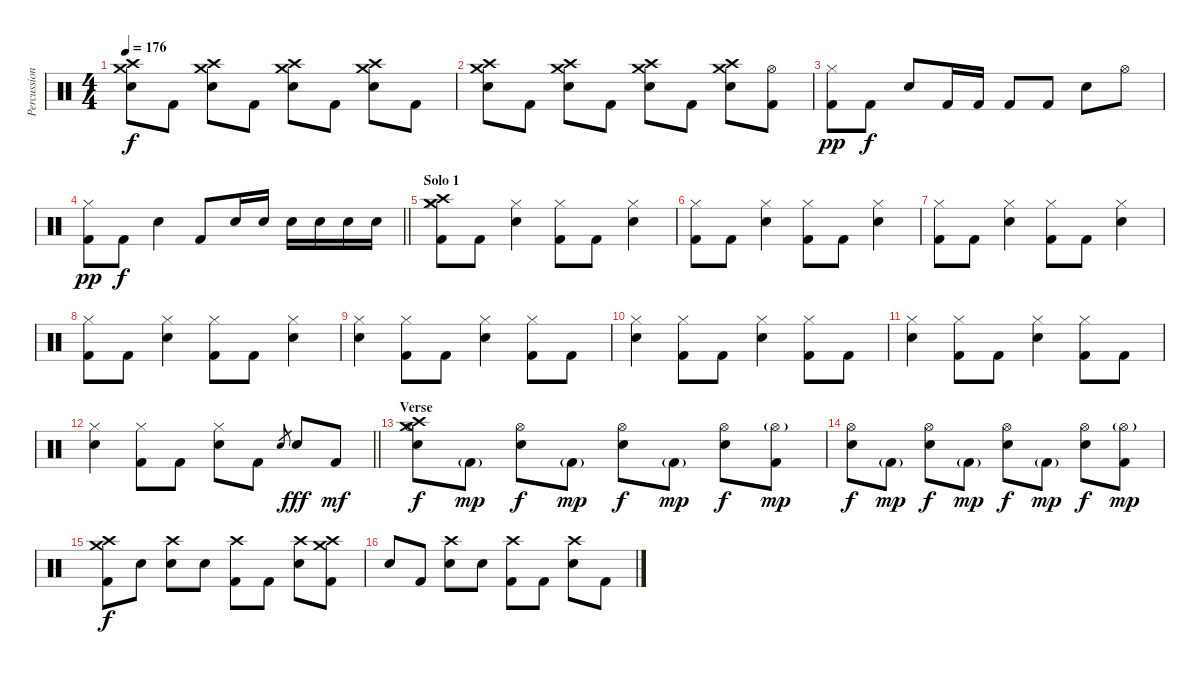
\track ("Percussion" "Percussion") {instrument percussion}
\staff {score}
\articulation defaults
\ts (4 4)
\tempo 176
\clef neutral
\ks c
("Crash medium (hit)" "Crash high (hit)" "Electric Snare (hit)").8{dy f} "Kick (hit) 2".8 ("Crash medium (hit)" "Crash high (hit)" "Electric Snare (hit)").8 "Kick (hit) 2".8 ("Crash medium (hit)" "Crash high (hit)" "Electric Snare (hit)").8 "Kick (hit) 2".8 ("Crash high (hit)" "Crash medium (hit)" "Electric Snare (hit)").8 "Kick (hit) 2".8 |
("Crash medium (hit)" "Crash high (hit)" "Electric Snare (hit)").8 "Kick (hit) 2".8 ("Crash medium (hit)" "Crash high (hit)" "Electric Snare (hit)").8 "Kick (hit) 2".8 ("Crash medium (hit)" "Crash high (hit)" "Electric Snare (hit)").8 "Kick (hit) 2".8 ("Crash high (hit)" "Crash medium (hit)" "Electric Snare (hit)").8 ("Hi-Hat (open)" "Kick (hit) 2").8 |
("Hi-Hat (closed)" "Kick (hit) 2").8{dy pp} "Kick (hit) 2".8{dy f} "Electric Snare (hit)".8 "Kick (hit) 2".16 "Kick (hit) 2".16 "Kick (hit) 2".8 "Kick (hit) 2".8 "Electric Snare (hit)".8 "Hi-Hat (open)".8 |
\barLineRight lightlight
("Hi-Hat (closed)" "Kick (hit) 2").8{dy pp} "Kick (hit) 2".8{dy f} "Electric Snare (hit)".4 "Kick (hit) 2".8 "Electric Snare (hit)".16 "Electric Snare (hit)".16 "Electric Snare (hit)".16 "Electric Snare (hit)".16 "Electric Snare (hit)".16 "Electric Snare (hit)".16 |
\section ("" "Solo 1")
("Crash high (hit)" "Crash medium (hit)" "Hi-Hat (closed)" "Kick (hit) 2").8 "Kick (hit) 2".8 ("Hi-Hat (closed)" "Electric Snare (hit)").4 ("Hi-Hat (closed)" "Kick (hit) 2").8 "Kick (hit) 2".8 ("Hi-Hat (closed)" "Electric Snare (hit)").4 |
("Hi-Hat (closed)" "Kick (hit) 2").8 "Kick (hit) 2".8 ("Hi-Hat (closed)" "Electric Snare (hit)").4 ("Hi-Hat (closed)" "Kick (hit) 2").8 "Kick (hit) 2".8 ("Hi-Hat (closed)" "Electric Snare (hit)").4 |
("Hi-Hat (closed)" "Kick (hit) 2").8 "Kick (hit) 2".8 ("Hi-Hat (closed)" "Electric Snare (hit)").4 ("Hi-Hat (closed)" "Kick (hit) 2").8 "Kick (hit) 2".8 ("Hi-Hat (closed)" "Electric Snare (hit)").4 |
("Hi-Hat (closed)" "Kick (hit) 2").8 "Kick (hit) 2".8 ("Hi-Hat (closed)" "Electric Snare (hit)").4 ("Hi-Hat (closed)" "Kick (hit) 2").8 "Kick (hit) 2".8 ("Hi-Hat (closed)" "Electric Snare (hit)").4 |
("Hi-Hat (closed)" "Electric Snare (hit)").4 ("Hi-Hat (closed)" "Kick (hit) 2").8 "Kick (hit) 2".8 ("Hi-Hat (closed)" "Electric Snare (hit)").4 ("Hi-Hat (closed)" "Kick (hit) 2").8 "Kick (hit) 2".8 |
("Hi-Hat (closed)" "Electric Snare (hit)").4 ("Hi-Hat (closed)" "Kick (hit) 2").8 "Kick (hit) 2".8 ("Hi-Hat (closed)" "Electric Snare (hit)").4 ("Hi-Hat (closed)" "Kick (hit) 2").8 "Kick (hit) 2".8 |
("Hi-Hat (closed)" "Electric Snare (hit)").4 ("Hi-Hat (closed)" "Kick (hit) 2").8 "Kick (hit) 2".8 ("Hi-Hat (closed)" "Electric Snare (hit)").4 ("Hi-Hat (closed)" "Kick (hit) 2").8 "Kick (hit) 2".8 |
\barLineRight lightlight
("Hi-Hat (closed)" "Electric Snare (hit)").4 ("Hi-Hat (closed)" "Kick (hit) 2").8 "Kick (hit) 2".8 ("Hi-Hat (closed)" "Electric Snare (hit)").8 "Kick (hit) 2".8 "Electric Snare (hit)".8{gr} "Electric Snare (hit)".8{dy fff} "Kick (hit) 2".8{dy mf} |
\section ("" "Verse")
("Crash medium (hit)" "Crash high (hit)" "Hi-Hat (open)" "Electric Snare (hit)").8{dy f} "Kick (hit) 2"{g}.8{dy mp} ("Hi-Hat (open)" "Electric Snare (hit)").8{dy f} "Kick (hit) 2"{g}.8{dy mp} ("Hi-Hat (open)" "Electric Snare (hit)").8{dy f} "Kick (hit) 2"{g}.8{dy mp} ("Hi-Hat (open)" "Electric Snare (hit)").8{dy f} ("Hi-Hat (open)"{g} "Kick (hit) 2").8{dy mp} |
("Hi-Hat (open)" "Electric Snare (hit)").8{dy f} "Kick (hit) 2"{g}.8{dy mp} ("Hi-Hat (open)" "Electric Snare (hit)").8{dy f} "Kick (hit) 2"{g}.8{dy mp} ("Hi-Hat (open)" "Electric Snare (hit)").8{dy f} "Kick (hit) 2"{g}.8{dy mp} ("Hi-Hat (open)" "Electric Snare (hit)").8{dy f} ("Hi-Hat (open)"{g} "Kick (hit) 2").8{dy mp} |
("Crash medium (hit)" "Crash high (hit)" "Kick (hit) 2").8{dy f} "Snare (hit)"{x}.8 ("Crash high (hit)" "Electric Snare (hit)").8 "Snare (hit)"{x}.8 ("Crash high (hit)" "Kick (hit) 2").8 "Kick (hit) 2".8 ("Crash high (hit)" "Electric Snare (hit)").8 ("Crash high (hit)" "Crash medium (hit)" "Kick (hit) 2").8 |
"Snare (hit)"{x}.8 "Kick (hit) 2".8 ("Crash high (hit)" "Electric Snare (hit)").8 "Snare (hit)"{x}.8 ("Crash high (hit)" "Kick (hit) 2").8 "Kick (hit) 2".8 ("Crash high (hit)" "Electric Snare (hit)").8 "Kick (hit) 2".8
